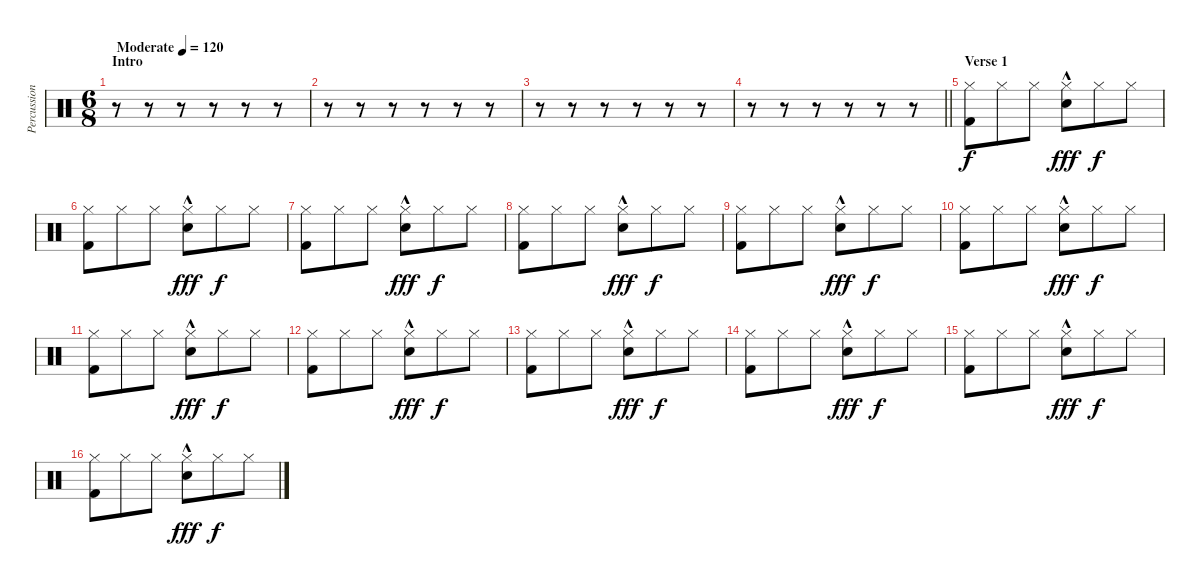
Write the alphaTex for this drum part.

\track ("Percussion" "Percussion") {mute instrument percussion}
\staff {score}
\articulation defaults
\ts (6 8)
\section ("" "Intro")
\tempo (120 "Moderate")
\tempo 96
\tempo (120 "Moderate")
\clef neutral
\ks c
r.8{dy f} r.8 r.8 r.8 r.8 r.8 |
r.8 r.8 r.8 r.8 r.8 r.8 |
r.8 r.8 r.8 r.8 r.8 r.8 |
\barLineRight lightlight
r.8 r.8 r.8 r.8 r.8 r.8 |
\section ("" "Verse 1")
("Kick (hit) 2" "Hi-Hat (closed)").8 "Hi-Hat (closed)".8 "Hi-Hat (closed)".8 ("Snare (hit) 2"{hac} "Hi-Hat (closed)").8{dy fff} "Hi-Hat (closed)".8{dy f} "Hi-Hat (closed)".8 |
("Kick (hit) 2" "Hi-Hat (closed)").8 "Hi-Hat (closed)".8 "Hi-Hat (closed)".8 ("Snare (hit) 2"{hac} "Hi-Hat (closed)").8{dy fff} "Hi-Hat (closed)".8{dy f} "Hi-Hat (closed)".8 |
("Kick (hit) 2" "Hi-Hat (closed)").8 "Hi-Hat (closed)".8 "Hi-Hat (closed)".8 ("Snare (hit) 2"{hac} "Hi-Hat (closed)").8{dy fff} "Hi-Hat (closed)".8{dy f} "Hi-Hat (closed)".8 |
("Kick (hit) 2" "Hi-Hat (closed)").8 "Hi-Hat (closed)".8 "Hi-Hat (closed)".8 ("Snare (hit) 2"{hac} "Hi-Hat (closed)").8{dy fff} "Hi-Hat (closed)".8{dy f} "Hi-Hat (closed)".8 |
("Kick (hit) 2" "Hi-Hat (closed)").8 "Hi-Hat (closed)".8 "Hi-Hat (closed)".8 ("Snare (hit) 2"{hac} "Hi-Hat (closed)").8{dy fff} "Hi-Hat (closed)".8{dy f} "Hi-Hat (closed)".8 |
("Kick (hit) 2" "Hi-Hat (closed)").8 "Hi-Hat (closed)".8 "Hi-Hat (closed)".8 ("Snare (hit) 2"{hac} "Hi-Hat (closed)").8{dy fff} "Hi-Hat (closed)".8{dy f} "Hi-Hat (closed)".8 |
("Kick (hit) 2" "Hi-Hat (closed)").8 "Hi-Hat (closed)".8 "Hi-Hat (closed)".8 ("Snare (hit) 2"{hac} "Hi-Hat (closed)").8{dy fff} "Hi-Hat (closed)".8{dy f} "Hi-Hat (closed)".8 |
("Kick (hit) 2" "Hi-Hat (closed)").8 "Hi-Hat (closed)".8 "Hi-Hat (closed)".8 ("Snare (hit) 2"{hac} "Hi-Hat (closed)").8{dy fff} "Hi-Hat (closed)".8{dy f} "Hi-Hat (closed)".8 |
("Kick (hit) 2" "Hi-Hat (closed)").8 "Hi-Hat (closed)".8 "Hi-Hat (closed)".8 ("Snare (hit) 2"{hac} "Hi-Hat (closed)").8{dy fff} "Hi-Hat (closed)".8{dy f} "Hi-Hat (closed)".8 |
("Kick (hit) 2" "Hi-Hat (closed)").8 "Hi-Hat (closed)".8 "Hi-Hat (closed)".8 ("Snare (hit) 2"{hac} "Hi-Hat (closed)").8{dy fff} "Hi-Hat (closed)".8{dy f} "Hi-Hat (closed)".8 |
("Kick (hit) 2" "Hi-Hat (closed)").8 "Hi-Hat (closed)".8 "Hi-Hat (closed)".8 ("Snare (hit) 2"{hac} "Hi-Hat (closed)").8{dy fff} "Hi-Hat (closed)".8{dy f} "Hi-Hat (closed)".8 |
("Kick (hit) 2" "Hi-Hat (closed)").8 "Hi-Hat (closed)".8 "Hi-Hat (closed)".8 ("Snare (hit) 2"{hac} "Hi-Hat (closed)").8{dy fff} "Hi-Hat (closed)".8{dy f} "Hi-Hat (closed)".8
